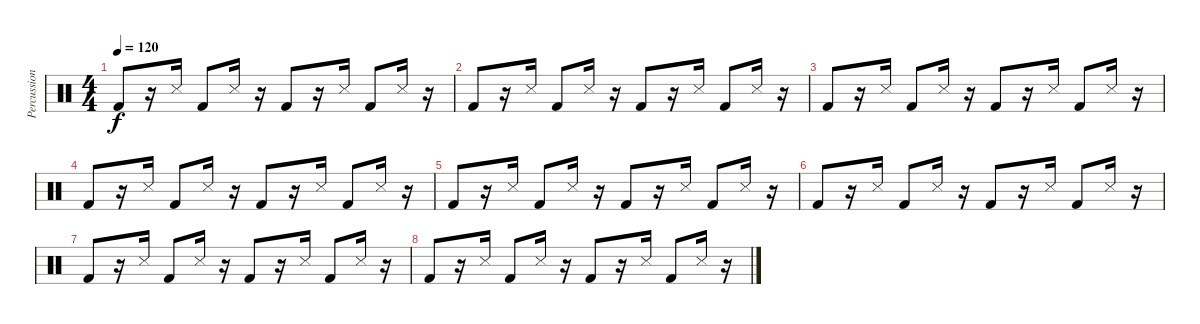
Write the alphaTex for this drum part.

\track ("Percussion" "Percussion") {instrument percussion}
\staff {score}
\articulation defaults
\ts (4 4)
\tempo 120
\clef neutral
\ks c "Kick (hit) 2".8{dy f}
r.16 "Snare (side stick) 3".16 "Kick (hit) 2".8 "Snare (side stick) 3".16 r.16 "Kick (hit) 2".8 r.16 "Snare (side stick) 3".16 "Kick (hit) 2".8 "Snare (side stick) 3".16 r.16 |
"Kick (hit) 2".8 r.16 "Snare (side stick) 3".16 "Kick (hit) 2".8 "Snare (side stick) 3".16 r.16 "Kick (hit) 2".8 r.16 "Snare (side stick) 3".16 "Kick (hit) 2".8 "Snare (side stick) 3".16 r.16 |
"Kick (hit) 2".8 r.16 "Snare (side stick) 3".16 "Kick (hit) 2".8 "Snare (side stick) 3".16 r.16 "Kick (hit) 2".8 r.16 "Snare (side stick) 3".16 "Kick (hit) 2".8 "Snare (side stick) 3".16 r.16 |
"Kick (hit) 2".8 r.16 "Snare (side stick) 3".16 "Kick (hit) 2".8 "Snare (side stick) 3".16 r.16 "Kick (hit) 2".8 r.16 "Snare (side stick) 3".16 "Kick (hit) 2".8 "Snare (side stick) 3".16 r.16 |
"Kick (hit) 2".8 r.16 "Snare (side stick) 3".16 "Kick (hit) 2".8 "Snare (side stick) 3".16 r.16 "Kick (hit) 2".8 r.16 "Snare (side stick) 3".16 "Kick (hit) 2".8 "Snare (side stick) 3".16 r.16 |
"Kick (hit) 2".8 r.16 "Snare (side stick) 3".16 "Kick (hit) 2".8 "Snare (side stick) 3".16 r.16 "Kick (hit) 2".8 r.16 "Snare (side stick) 3".16 "Kick (hit) 2".8 "Snare (side stick) 3".16 r.16 |
"Kick (hit) 2".8 r.16 "Snare (side stick) 3".16 "Kick (hit) 2".8 "Snare (side stick) 3".16 r.16 "Kick (hit) 2".8 r.16 "Snare (side stick) 3".16 "Kick (hit) 2".8 "Snare (side stick) 3".16 r.16 |
"Kick (hit) 2".8 r.16 "Snare (side stick) 3".16 "Kick (hit) 2".8 "Snare (side stick) 3".16 r.16 "Kick (hit) 2".8 r.16 "Snare (side stick) 3".16 "Kick (hit) 2".8 "Snare (side stick) 3".16 r.16
